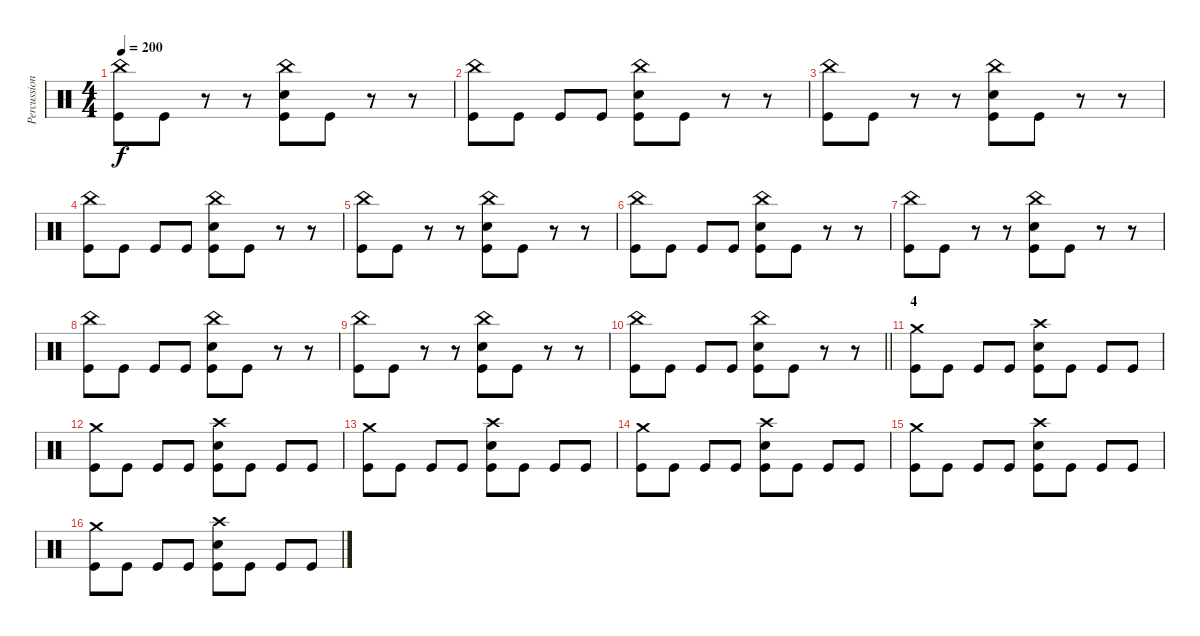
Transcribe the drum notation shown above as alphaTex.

\track ("Percussion" "Percussion") {instrument percussion}
\staff {score}
\articulation defaults
\ts (4 4)
\tempo 200
\clef neutral
\ks c
("China (hit)" "Kick (hit)").8{dy f} "Kick (hit)".8 r.8 r.8 ("China (hit)" "Snare (hit) 2" "Kick (hit)").8 "Kick (hit)".8 r.8 r.8 |
("China (hit)" "Kick (hit)").8 "Kick (hit)".8 "Kick (hit)".8 "Kick (hit)".8 ("China (hit)" "Snare (hit) 2" "Kick (hit)").8 "Kick (hit)".8 r.8 r.8 |
("China (hit)" "Kick (hit)").8 "Kick (hit)".8 r.8 r.8 ("China (hit)" "Snare (hit) 2" "Kick (hit)").8 "Kick (hit)".8 r.8 r.8 |
("China (hit)" "Kick (hit)").8 "Kick (hit)".8 "Kick (hit)".8 "Kick (hit)".8 ("China (hit)" "Snare (hit) 2" "Kick (hit)").8 "Kick (hit)".8 r.8 r.8 |
("China (hit)" "Kick (hit)").8 "Kick (hit)".8 r.8 r.8 ("China (hit)" "Snare (hit) 2" "Kick (hit)").8 "Kick (hit)".8 r.8 r.8 |
("China (hit)" "Kick (hit)").8 "Kick (hit)".8 "Kick (hit)".8 "Kick (hit)".8 ("China (hit)" "Snare (hit) 2" "Kick (hit)").8 "Kick (hit)".8 r.8 r.8 |
("China (hit)" "Kick (hit)").8 "Kick (hit)".8 r.8 r.8 ("China (hit)" "Snare (hit) 2" "Kick (hit)").8 "Kick (hit)".8 r.8 r.8 |
("China (hit)" "Kick (hit)").8 "Kick (hit)".8 "Kick (hit)".8 "Kick (hit)".8 ("China (hit)" "Snare (hit) 2" "Kick (hit)").8 "Kick (hit)".8 r.8 r.8 |
("China (hit)" "Kick (hit)").8 "Kick (hit)".8 r.8 r.8 ("China (hit)" "Snare (hit) 2" "Kick (hit)").8 "Kick (hit)".8 r.8 r.8 |
\barLineRight lightlight
("China (hit)" "Kick (hit)").8 "Kick (hit)".8 "Kick (hit)".8 "Kick (hit)".8 ("China (hit)" "Snare (hit) 2" "Kick (hit)").8 "Kick (hit)".8 r.8 r.8 |
\section ("" "4")
("Crash medium (hit)" "Kick (hit)").8 "Kick (hit)".8 "Kick (hit)".8 "Kick (hit)".8 ("Crash high (hit)" "Snare (hit) 2" "Kick (hit)").8 "Kick (hit)".8 "Kick (hit)".8 "Kick (hit)".8 |
("Crash medium (hit)" "Kick (hit)").8 "Kick (hit)".8 "Kick (hit)".8 "Kick (hit)".8 ("Crash high (hit)" "Snare (hit) 2" "Kick (hit)").8 "Kick (hit)".8 "Kick (hit)".8 "Kick (hit)".8 |
("Crash medium (hit)" "Kick (hit)").8 "Kick (hit)".8 "Kick (hit)".8 "Kick (hit)".8 ("Crash high (hit)" "Snare (hit) 2" "Kick (hit)").8 "Kick (hit)".8 "Kick (hit)".8 "Kick (hit)".8 |
("Crash medium (hit)" "Kick (hit)").8 "Kick (hit)".8 "Kick (hit)".8 "Kick (hit)".8 ("Crash high (hit)" "Snare (hit) 2" "Kick (hit)").8 "Kick (hit)".8 "Kick (hit)".8 "Kick (hit)".8 |
("Crash medium (hit)" "Kick (hit)").8 "Kick (hit)".8 "Kick (hit)".8 "Kick (hit)".8 ("Crash high (hit)" "Snare (hit) 2" "Kick (hit)").8 "Kick (hit)".8 "Kick (hit)".8 "Kick (hit)".8 |
("Crash medium (hit)" "Kick (hit)").8 "Kick (hit)".8 "Kick (hit)".8 "Kick (hit)".8 ("Crash high (hit)" "Snare (hit) 2" "Kick (hit)").8 "Kick (hit)".8 "Kick (hit)".8 "Kick (hit)".8
